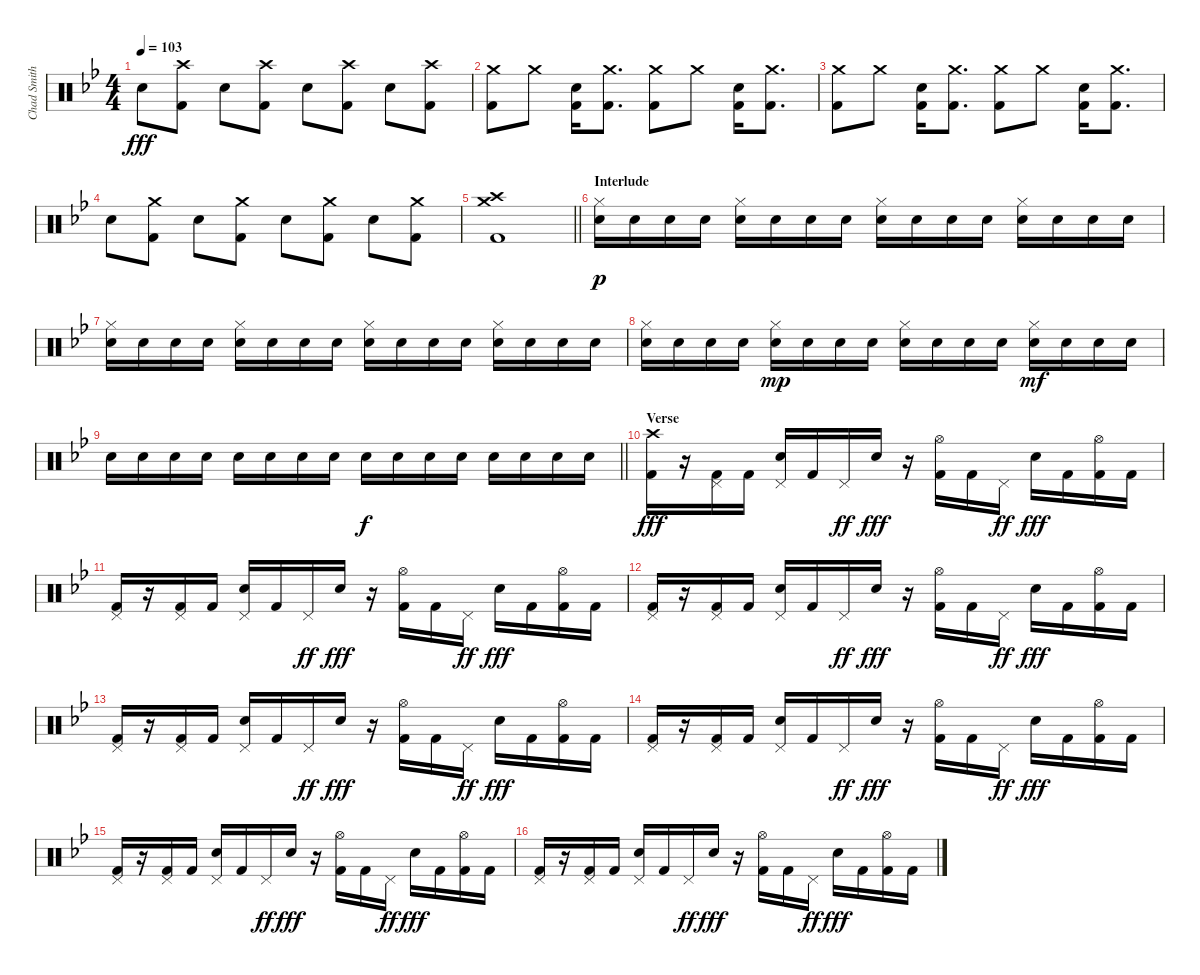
\track ("Chad Smith (Drums)" "Chad Smith") {instrument percussion}
\staff {score}
\articulation defaults
\ts (4 4)
\tempo 103
\clef neutral
\ks bb "Snare (hit) 2".8{dy fff}
("Crash high (hit)" "Kick (hit) 2").8 "Snare (hit) 2".8 ("Crash high (hit)" "Kick (hit) 2").8 "Snare (hit) 2".8 ("Crash high (hit)" "Kick (hit) 2").8 "Snare (hit) 2".8 ("Crash high (hit)" "Kick (hit) 2").8 |
("Crash medium (hit)" "Kick (hit) 2").8 "Crash medium (hit)".8 ("Snare (hit) 2" "Kick (hit) 2").16 ("Crash medium (hit)" "Kick (hit) 2").8{d} ("Crash medium (hit)" "Kick (hit) 2").8 "Crash medium (hit)".8 ("Snare (hit) 2" "Kick (hit) 2").16 ("Crash medium (hit)" "Kick (hit) 2").8{d} |
("Crash medium (hit)" "Kick (hit) 2").8 "Crash medium (hit)".8 ("Snare (hit) 2" "Kick (hit) 2").16 ("Crash medium (hit)" "Kick (hit) 2").8{d} ("Crash medium (hit)" "Kick (hit) 2").8 "Crash medium (hit)".8 ("Snare (hit) 2" "Kick (hit) 2").16 ("Crash medium (hit)" "Kick (hit) 2").8{d} |
"Snare (hit) 2".8 ("Crash medium (hit)" "Kick (hit) 2").8 "Snare (hit) 2".8 ("Crash medium (hit)" "Kick (hit) 2").8 "Snare (hit) 2".8 ("Crash medium (hit)" "Kick (hit) 2").8 "Snare (hit) 2".8 ("Crash medium (hit)" "Kick (hit) 2").8 |
\barLineRight lightlight
("Crash medium (hit)" "Crash high (hit)" "Kick (hit) 2").1{volume 13} |
\section ("" "Interlude")
("Hi-Hat (closed)" "Snare (hit) 2").16{dy p} "Snare (hit) 2".16 "Snare (hit) 2".16 "Snare (hit) 2".16 ("Hi-Hat (closed)" "Snare (hit) 2").16 "Snare (hit) 2".16 "Snare (hit) 2".16 "Snare (hit) 2".16 ("Hi-Hat (closed)" "Snare (hit) 2").16 "Snare (hit) 2".16 "Snare (hit) 2".16 "Snare (hit) 2".16 ("Hi-Hat (closed)" "Snare (hit) 2").16 "Snare (hit) 2".16 "Snare (hit) 2".16 "Snare (hit) 2".16 |
("Hi-Hat (closed)" "Snare (hit) 2").16 "Snare (hit) 2".16 "Snare (hit) 2".16 "Snare (hit) 2".16 ("Hi-Hat (closed)" "Snare (hit) 2").16 "Snare (hit) 2".16 "Snare (hit) 2".16 "Snare (hit) 2".16 ("Hi-Hat (closed)" "Snare (hit) 2").16 "Snare (hit) 2".16 "Snare (hit) 2".16 "Snare (hit) 2".16 ("Hi-Hat (closed)" "Snare (hit) 2").16 "Snare (hit) 2".16 "Snare (hit) 2".16 "Snare (hit) 2".16 |
("Hi-Hat (closed)" "Snare (hit) 2").16 "Snare (hit) 2".16 "Snare (hit) 2".16 "Snare (hit) 2".16 ("Hi-Hat (closed)" "Snare (hit) 2").16{dy mp} "Snare (hit) 2".16 "Snare (hit) 2".16 "Snare (hit) 2".16 ("Hi-Hat (closed)" "Snare (hit) 2").16 "Snare (hit) 2".16 "Snare (hit) 2".16 "Snare (hit) 2".16 ("Hi-Hat (closed)" "Snare (hit) 2").16{dy mf} "Snare (hit) 2".16 "Snare (hit) 2".16 "Snare (hit) 2".16 |
\barLineRight lightlight "Snare (hit) 2".16 "Snare (hit) 2".16 "Snare (hit) 2".16 "Snare (hit) 2".16 "Snare (hit) 2".16 "Snare (hit) 2".16 "Snare (hit) 2".16 "Snare (hit) 2".16 "Snare (hit) 2".16{dy f} "Snare (hit) 2".16 "Snare (hit) 2".16 "Snare (hit) 2".16 "Snare (hit) 2".16 "Snare (hit) 2".16 "Snare (hit) 2".16 "Snare (hit) 2".16
|
\section ("" "Verse")
("Crash high (hit)" "Kick (hit) 2").16{dy fff} r.16 ("Pedal Hi-Hat (hit)" "Kick (hit) 2").16 "Kick (hit) 2".16 ("Pedal Hi-Hat (hit)" "Snare (hit) 2").16 "Kick (hit) 2".16 "Pedal Hi-Hat (hit)".16{dy ff} "Snare (hit) 2".16{dy fff} r.16 ("Hi-Hat (open)" "Kick (hit) 2").16 "Kick (hit) 2".16 "Pedal Hi-Hat (hit)".16{dy ff} "Snare (hit) 2".16{dy fff} "Kick (hit) 2".16 ("Hi-Hat (open)" "Kick (hit) 2").16 "Kick (hit) 2".16 |
("Pedal Hi-Hat (hit)" "Kick (hit) 2").16 r.16 ("Pedal Hi-Hat (hit)" "Kick (hit) 2").16 "Kick (hit) 2".16 ("Pedal Hi-Hat (hit)" "Snare (hit) 2").16 "Kick (hit) 2".16 "Pedal Hi-Hat (hit)".16{dy ff} "Snare (hit) 2".16{dy fff} r.16 ("Hi-Hat (open)" "Kick (hit) 2").16 "Kick (hit) 2".16 "Pedal Hi-Hat (hit)".16{dy ff} "Snare (hit) 2".16{dy fff} "Kick (hit) 2".16 ("Hi-Hat (open)" "Kick (hit) 2").16 "Kick (hit) 2".16 |
("Pedal Hi-Hat (hit)" "Kick (hit) 2").16 r.16 ("Pedal Hi-Hat (hit)" "Kick (hit) 2").16 "Kick (hit) 2".16 ("Pedal Hi-Hat (hit)" "Snare (hit) 2").16 "Kick (hit) 2".16 "Pedal Hi-Hat (hit)".16{dy ff} "Snare (hit) 2".16{dy fff} r.16 ("Hi-Hat (open)" "Kick (hit) 2").16 "Kick (hit) 2".16 "Pedal Hi-Hat (hit)".16{dy ff} "Snare (hit) 2".16{dy fff} "Kick (hit) 2".16 ("Hi-Hat (open)" "Kick (hit) 2").16 "Kick (hit) 2".16 |
("Pedal Hi-Hat (hit)" "Kick (hit) 2").16 r.16 ("Pedal Hi-Hat (hit)" "Kick (hit) 2").16 "Kick (hit) 2".16 ("Pedal Hi-Hat (hit)" "Snare (hit) 2").16 "Kick (hit) 2".16 "Pedal Hi-Hat (hit)".16{dy ff} "Snare (hit) 2".16{dy fff} r.16 ("Hi-Hat (open)" "Kick (hit) 2").16 "Kick (hit) 2".16 "Pedal Hi-Hat (hit)".16{dy ff} "Snare (hit) 2".16{dy fff} "Kick (hit) 2".16 ("Hi-Hat (open)" "Kick (hit) 2").16 "Kick (hit) 2".16 |
("Pedal Hi-Hat (hit)" "Kick (hit) 2").16 r.16 ("Pedal Hi-Hat (hit)" "Kick (hit) 2").16 "Kick (hit) 2".16 ("Pedal Hi-Hat (hit)" "Snare (hit) 2").16 "Kick (hit) 2".16 "Pedal Hi-Hat (hit)".16{dy ff} "Snare (hit) 2".16{dy fff} r.16 ("Hi-Hat (open)" "Kick (hit) 2").16 "Kick (hit) 2".16 "Pedal Hi-Hat (hit)".16{dy ff} "Snare (hit) 2".16{dy fff} "Kick (hit) 2".16 ("Hi-Hat (open)" "Kick (hit) 2").16 "Kick (hit) 2".16 |
("Pedal Hi-Hat (hit)" "Kick (hit) 2").16 r.16 ("Pedal Hi-Hat (hit)" "Kick (hit) 2").16 "Kick (hit) 2".16 ("Pedal Hi-Hat (hit)" "Snare (hit) 2").16 "Kick (hit) 2".16 "Pedal Hi-Hat (hit)".16{dy ff} "Snare (hit) 2".16{dy fff} r.16 ("Hi-Hat (open)" "Kick (hit) 2").16 "Kick (hit) 2".16 "Pedal Hi-Hat (hit)".16{dy ff} "Snare (hit) 2".16{dy fff} "Kick (hit) 2".16 ("Hi-Hat (open)" "Kick (hit) 2").16 "Kick (hit) 2".16 |
("Pedal Hi-Hat (hit)" "Kick (hit) 2").16 r.16 ("Pedal Hi-Hat (hit)" "Kick (hit) 2").16 "Kick (hit) 2".16 ("Pedal Hi-Hat (hit)" "Snare (hit) 2").16 "Kick (hit) 2".16 "Pedal Hi-Hat (hit)".16{dy ff} "Snare (hit) 2".16{dy fff} r.16 ("Hi-Hat (open)" "Kick (hit) 2").16 "Kick (hit) 2".16 "Pedal Hi-Hat (hit)".16{dy ff} "Snare (hit) 2".16{dy fff} "Kick (hit) 2".16 ("Hi-Hat (open)" "Kick (hit) 2").16 "Kick (hit) 2".16
